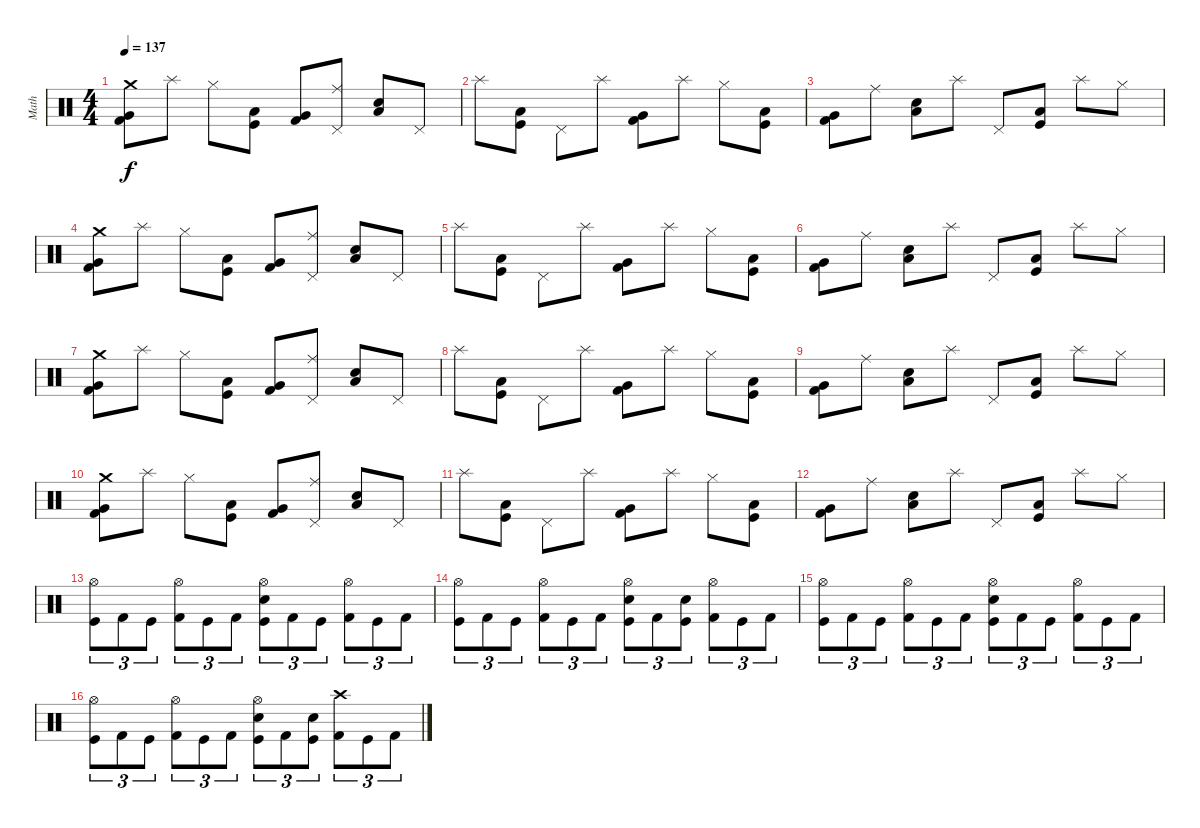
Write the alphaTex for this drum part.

\track ("Math" "Math") {instrument percussion}
\staff {score}
\articulation defaults
\ts (4 4)
\tempo 137
\clef neutral
\ks c
("Kick (hit) 2" "Very Low Tom (hit)" "Crash medium (hit)").8{dy f} "Splash (hit)".8 "Hi-Hat (closed)".8 ("Kick (hit)" "Low Tom (hit)").8 ("Kick (hit) 2" "Very Low Tom (hit)").8 ("Pedal Hi-Hat (hit)" "Ride (middle)").8 ("Snare (hit) 2" "Low Floor Tom (hit)").8 "Pedal Hi-Hat (hit)".8 |
"Splash (hit)".8 ("Kick (hit)" "Low Tom (hit)").8 "Pedal Hi-Hat (hit)".8 "Splash (hit)".8 ("Kick (hit) 2" "Very Low Tom (hit)").8 "Splash (hit)".8 "Hi-Hat (closed)".8 ("Kick (hit)" "Low Tom (hit)").8 |
("Kick (hit) 2" "Very Low Tom (hit)").8 "Ride (middle)".8 ("Snare (hit) 2" "Low Floor Tom (hit)").8 "Splash (hit)".8 "Pedal Hi-Hat (hit)".8 ("Kick (hit)" "Low Tom (hit)").8 "Splash (hit)".8 "Hi-Hat (closed)".8 |
("Kick (hit) 2" "Very Low Tom (hit)" "Crash medium (hit)").8 "Splash (hit)".8 "Hi-Hat (closed)".8 ("Kick (hit)" "Low Tom (hit)").8 ("Kick (hit) 2" "Very Low Tom (hit)").8 ("Pedal Hi-Hat (hit)" "Ride (middle)").8 ("Snare (hit) 2" "Low Floor Tom (hit)").8 "Pedal Hi-Hat (hit)".8 |
"Splash (hit)".8 ("Kick (hit)" "Low Tom (hit)").8 "Pedal Hi-Hat (hit)".8 "Splash (hit)".8 ("Kick (hit) 2" "Very Low Tom (hit)").8 "Splash (hit)".8 "Hi-Hat (closed)".8 ("Kick (hit)" "Low Tom (hit)").8 |
("Kick (hit) 2" "Very Low Tom (hit)").8 "Ride (middle)".8 ("Snare (hit) 2" "Low Floor Tom (hit)").8 "Splash (hit)".8 "Pedal Hi-Hat (hit)".8 ("Kick (hit)" "Low Tom (hit)").8 "Splash (hit)".8 "Hi-Hat (closed)".8 |
("Kick (hit) 2" "Very Low Tom (hit)" "Crash medium (hit)").8 "Splash (hit)".8 "Hi-Hat (closed)".8 ("Kick (hit)" "Low Tom (hit)").8 ("Kick (hit) 2" "Very Low Tom (hit)").8 ("Pedal Hi-Hat (hit)" "Ride (middle)").8 ("Snare (hit) 2" "Low Floor Tom (hit)").8 "Pedal Hi-Hat (hit)".8 |
"Splash (hit)".8 ("Kick (hit)" "Low Tom (hit)").8 "Pedal Hi-Hat (hit)".8 "Splash (hit)".8 ("Kick (hit) 2" "Very Low Tom (hit)").8 "Splash (hit)".8 "Hi-Hat (closed)".8 ("Kick (hit)" "Low Tom (hit)").8 |
("Kick (hit) 2" "Very Low Tom (hit)").8 "Ride (middle)".8 ("Snare (hit) 2" "Low Floor Tom (hit)").8 "Splash (hit)".8 "Pedal Hi-Hat (hit)".8 ("Kick (hit)" "Low Tom (hit)").8 "Splash (hit)".8 "Hi-Hat (closed)".8 |
("Kick (hit) 2" "Very Low Tom (hit)" "Crash medium (hit)").8 "Splash (hit)".8 "Hi-Hat (closed)".8 ("Kick (hit)" "Low Tom (hit)").8 ("Kick (hit) 2" "Very Low Tom (hit)").8 ("Pedal Hi-Hat (hit)" "Ride (middle)").8 ("Snare (hit) 2" "Low Floor Tom (hit)").8 "Pedal Hi-Hat (hit)".8 |
"Splash (hit)".8 ("Kick (hit)" "Low Tom (hit)").8 "Pedal Hi-Hat (hit)".8 "Splash (hit)".8 ("Kick (hit) 2" "Very Low Tom (hit)").8 "Splash (hit)".8 "Hi-Hat (closed)".8 ("Kick (hit)" "Low Tom (hit)").8 |
("Kick (hit) 2" "Very Low Tom (hit)").8 "Ride (middle)".8 ("Snare (hit) 2" "Low Floor Tom (hit)").8 "Splash (hit)".8 "Pedal Hi-Hat (hit)".8 ("Kick (hit)" "Low Tom (hit)").8 "Splash (hit)".8 "Hi-Hat (closed)".8 |
("Kick (hit)" "Hi-Hat (open)").8{tu (3 2)} "Kick (hit) 2".8{tu (3 2)} "Kick (hit)".8{tu (3 2)} ("Kick (hit) 2" "Hi-Hat (open)").8{tu (3 2)} "Kick (hit)".8{tu (3 2)} "Kick (hit) 2".8{tu (3 2)} ("Kick (hit)" "Snare (hit) 2" "Hi-Hat (open)").8{tu (3 2)} "Kick (hit) 2".8{tu (3 2)} "Kick (hit)".8{tu (3 2)} ("Kick (hit) 2" "Hi-Hat (open)").8{tu (3 2)} "Kick (hit)".8{tu (3 2)} "Kick (hit) 2".8{tu (3 2)} |
("Kick (hit)" "Hi-Hat (open)").8{tu (3 2)} "Kick (hit) 2".8{tu (3 2)} "Kick (hit)".8{tu (3 2)} ("Kick (hit) 2" "Hi-Hat (open)").8{tu (3 2)} "Kick (hit)".8{tu (3 2)} "Kick (hit) 2".8{tu (3 2)} ("Kick (hit)" "Snare (hit) 2" "Hi-Hat (open)").8{tu (3 2)} "Kick (hit) 2".8{tu (3 2)} ("Kick (hit)" "Snare (hit) 2").8{tu (3 2)} ("Kick (hit) 2" "Hi-Hat (open)").8{tu (3 2)} "Kick (hit)".8{tu (3 2)} "Kick (hit) 2".8{tu (3 2)} |
("Kick (hit)" "Hi-Hat (open)").8{tu (3 2)} "Kick (hit) 2".8{tu (3 2)} "Kick (hit)".8{tu (3 2)} ("Kick (hit) 2" "Hi-Hat (open)").8{tu (3 2)} "Kick (hit)".8{tu (3 2)} "Kick (hit) 2".8{tu (3 2)} ("Kick (hit)" "Snare (hit) 2" "Hi-Hat (open)").8{tu (3 2)} "Kick (hit) 2".8{tu (3 2)} "Kick (hit)".8{tu (3 2)} ("Kick (hit) 2" "Hi-Hat (open)").8{tu (3 2)} "Kick (hit)".8{tu (3 2)} "Kick (hit) 2".8{tu (3 2)} |
("Kick (hit)" "Hi-Hat (open)").8{tu (3 2)} "Kick (hit) 2".8{tu (3 2)} "Kick (hit)".8{tu (3 2)} ("Kick (hit) 2" "Hi-Hat (open)").8{tu (3 2)} "Kick (hit)".8{tu (3 2)} "Kick (hit) 2".8{tu (3 2)} ("Kick (hit)" "Snare (hit) 2" "Hi-Hat (open)").8{tu (3 2)} "Kick (hit) 2".8{tu (3 2)} ("Kick (hit)" "Snare (hit) 2").8{tu (3 2)} ("Kick (hit) 2" "Crash high (hit)").8{tu (3 2)} "Kick (hit)".8{tu (3 2)} "Kick (hit) 2".8{tu (3 2)}
